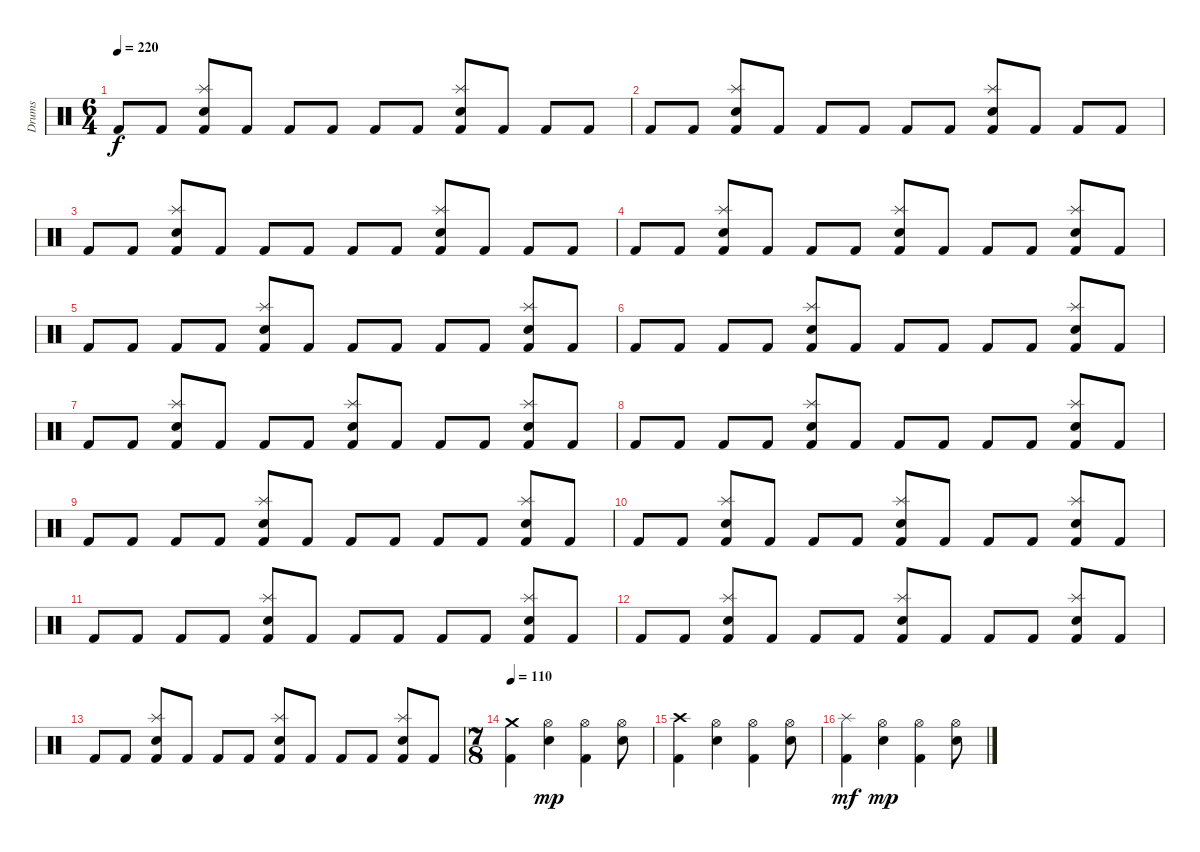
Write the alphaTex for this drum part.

\track ("Drums" "Drums") {instrument percussion}
\staff {score}
\articulation defaults
\ts (6 4)
\tempo 220
\clef neutral
\ks c "Kick (hit) 2".8{dy f} "Kick (hit) 2".8
("Splash (hit)" "Snare (hit) 2" "Kick (hit) 2").8 "Kick (hit) 2".8 "Kick (hit) 2".8 "Kick (hit) 2".8 "Kick (hit) 2".8 "Kick (hit) 2".8 ("Splash (hit)" "Snare (hit) 2" "Kick (hit) 2").8 "Kick (hit) 2".8 "Kick (hit) 2".8 "Kick (hit) 2".8 |
"Kick (hit) 2".8 "Kick (hit) 2".8 ("Splash (hit)" "Snare (hit) 2" "Kick (hit) 2").8 "Kick (hit) 2".8 "Kick (hit) 2".8 "Kick (hit) 2".8 "Kick (hit) 2".8 "Kick (hit) 2".8 ("Splash (hit)" "Snare (hit) 2" "Kick (hit) 2").8 "Kick (hit) 2".8 "Kick (hit) 2".8 "Kick (hit) 2".8 |
"Kick (hit) 2".8 "Kick (hit) 2".8 ("Splash (hit)" "Snare (hit) 2" "Kick (hit) 2").8 "Kick (hit) 2".8 "Kick (hit) 2".8 "Kick (hit) 2".8 "Kick (hit) 2".8 "Kick (hit) 2".8 ("Splash (hit)" "Snare (hit) 2" "Kick (hit) 2").8 "Kick (hit) 2".8 "Kick (hit) 2".8 "Kick (hit) 2".8 |
"Kick (hit) 2".8 "Kick (hit) 2".8 ("Splash (hit)" "Snare (hit) 2" "Kick (hit) 2").8 "Kick (hit) 2".8 "Kick (hit) 2".8 "Kick (hit) 2".8 ("Splash (hit)" "Snare (hit) 2" "Kick (hit) 2").8 "Kick (hit) 2".8 "Kick (hit) 2".8 "Kick (hit) 2".8 ("Splash (hit)" "Snare (hit) 2" "Kick (hit) 2").8 "Kick (hit) 2".8 |
"Kick (hit) 2".8 "Kick (hit) 2".8 "Kick (hit) 2".8 "Kick (hit) 2".8 ("Splash (hit)" "Snare (hit) 2" "Kick (hit) 2").8 "Kick (hit) 2".8 "Kick (hit) 2".8 "Kick (hit) 2".8 "Kick (hit) 2".8 "Kick (hit) 2".8 ("Splash (hit)" "Snare (hit) 2" "Kick (hit) 2").8 "Kick (hit) 2".8 |
"Kick (hit) 2".8 "Kick (hit) 2".8 "Kick (hit) 2".8 "Kick (hit) 2".8 ("Splash (hit)" "Snare (hit) 2" "Kick (hit) 2").8 "Kick (hit) 2".8 "Kick (hit) 2".8 "Kick (hit) 2".8 "Kick (hit) 2".8 "Kick (hit) 2".8 ("Splash (hit)" "Snare (hit) 2" "Kick (hit) 2").8 "Kick (hit) 2".8 |
"Kick (hit) 2".8 "Kick (hit) 2".8 ("Splash (hit)" "Snare (hit) 2" "Kick (hit) 2").8 "Kick (hit) 2".8 "Kick (hit) 2".8 "Kick (hit) 2".8 ("Splash (hit)" "Snare (hit) 2" "Kick (hit) 2").8 "Kick (hit) 2".8 "Kick (hit) 2".8 "Kick (hit) 2".8 ("Splash (hit)" "Snare (hit) 2" "Kick (hit) 2").8 "Kick (hit) 2".8 |
"Kick (hit) 2".8 "Kick (hit) 2".8 "Kick (hit) 2".8 "Kick (hit) 2".8 ("Splash (hit)" "Snare (hit) 2" "Kick (hit) 2").8 "Kick (hit) 2".8 "Kick (hit) 2".8 "Kick (hit) 2".8 "Kick (hit) 2".8 "Kick (hit) 2".8 ("Splash (hit)" "Snare (hit) 2" "Kick (hit) 2").8 "Kick (hit) 2".8 |
"Kick (hit) 2".8 "Kick (hit) 2".8 "Kick (hit) 2".8 "Kick (hit) 2".8 ("Splash (hit)" "Snare (hit) 2" "Kick (hit) 2").8 "Kick (hit) 2".8 "Kick (hit) 2".8 "Kick (hit) 2".8 "Kick (hit) 2".8 "Kick (hit) 2".8 ("Splash (hit)" "Snare (hit) 2" "Kick (hit) 2").8 "Kick (hit) 2".8 |
"Kick (hit) 2".8 "Kick (hit) 2".8 ("Splash (hit)" "Snare (hit) 2" "Kick (hit) 2").8 "Kick (hit) 2".8 "Kick (hit) 2".8 "Kick (hit) 2".8 ("Splash (hit)" "Snare (hit) 2" "Kick (hit) 2").8 "Kick (hit) 2".8 "Kick (hit) 2".8 "Kick (hit) 2".8 ("Splash (hit)" "Snare (hit) 2" "Kick (hit) 2").8 "Kick (hit) 2".8 |
"Kick (hit) 2".8 "Kick (hit) 2".8 "Kick (hit) 2".8 "Kick (hit) 2".8 ("Splash (hit)" "Snare (hit) 2" "Kick (hit) 2").8 "Kick (hit) 2".8 "Kick (hit) 2".8 "Kick (hit) 2".8 "Kick (hit) 2".8 "Kick (hit) 2".8 ("Splash (hit)" "Snare (hit) 2" "Kick (hit) 2").8 "Kick (hit) 2".8 |
"Kick (hit) 2".8 "Kick (hit) 2".8 ("Splash (hit)" "Snare (hit) 2" "Kick (hit) 2").8 "Kick (hit) 2".8 "Kick (hit) 2".8 "Kick (hit) 2".8 ("Splash (hit)" "Snare (hit) 2" "Kick (hit) 2").8 "Kick (hit) 2".8 "Kick (hit) 2".8 "Kick (hit) 2".8 ("Splash (hit)" "Snare (hit) 2" "Kick (hit) 2").8 "Kick (hit) 2".8 |
"Kick (hit) 2".8 "Kick (hit) 2".8 ("Splash (hit)" "Snare (hit) 2" "Kick (hit) 2").8 "Kick (hit) 2".8 "Kick (hit) 2".8 "Kick (hit) 2".8 ("Splash (hit)" "Snare (hit) 2" "Kick (hit) 2").8 "Kick (hit) 2".8 "Kick (hit) 2".8 "Kick (hit) 2".8 ("Splash (hit)" "Snare (hit) 2" "Kick (hit) 2").8 "Kick (hit) 2".8 |
\ts (7 8)
\tempo 110
("Crash medium (hit)" "Kick (hit) 2").4 ("Hi-Hat (open)" "Snare (hit) 2").4{dy mp} ("Hi-Hat (open)" "Kick (hit) 2").4 ("Hi-Hat (open)" "Snare (hit) 2").8 |
("Crash high (hit)" "Kick (hit) 2").4 ("Hi-Hat (open)" "Snare (hit) 2").4 ("Hi-Hat (open)" "Kick (hit) 2").4 ("Hi-Hat (open)" "Snare (hit) 2").8 |
("Splash (hit)" "Kick (hit) 2").4{dy mf} ("Hi-Hat (open)" "Snare (hit) 2").4{dy mp} ("Hi-Hat (open)" "Kick (hit) 2").4 ("Hi-Hat (open)" "Snare (hit) 2").8
